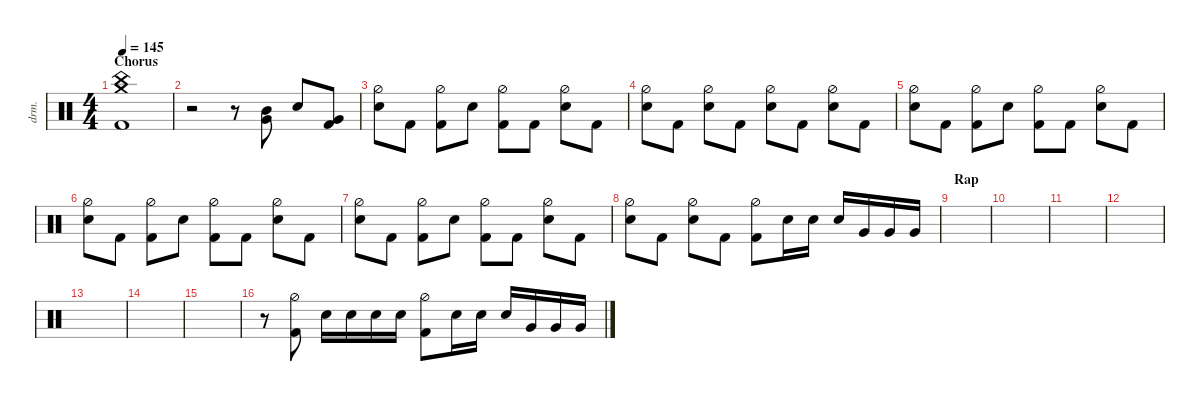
\defaultSystemsLayout 4
\hideDynamics
\bracketExtendMode nobrackets
\track ("Drums - Mario" "drm.") {instrument percussion}
\staff {score}
\articulation defaults
\ts (4 4)
\section ("" "Chorus")
\tempo 145
\clef neutral
\ks c
("Kick (hit) 2" "China (hit)" "Crash medium (hit)").1{dy ff beam Down} |
r.2{beam Down} r.8{beam Down} ("Mid Tom (hit)" "Very Low Tom (hit)").8{beam Up} "Snare (hit) 2".8{beam Up} ("Kick (hit) 2" "Very Low Tom (hit)").8{beam Up} |
("Snare (hit) 2" "Hi-Hat (half)").8{beam Down} "Kick (hit) 2".8{beam Down} ("Kick (hit) 2" "Hi-Hat (half)").8{beam Down} "Snare (hit) 2".8{beam Down} ("Kick (hit) 2" "Hi-Hat (half)").8{beam Down} "Kick (hit) 2".8{beam Down} ("Snare (hit) 2" "Hi-Hat (half)").8{beam Down} "Kick (hit) 2".8{beam Down} |
("Snare (hit) 2" "Hi-Hat (half)").8{beam Down} "Kick (hit) 2".8{beam Down} ("Snare (hit) 2" "Hi-Hat (half)").8{beam Down} "Kick (hit) 2".8{beam Down} ("Snare (hit) 2" "Hi-Hat (half)").8{beam Down} "Kick (hit) 2".8{beam Down} ("Snare (hit) 2" "Hi-Hat (half)").8{beam Down} "Kick (hit) 2".8{beam Down} |
("Snare (hit) 2" "Hi-Hat (half)").8{beam Down} "Kick (hit) 2".8{beam Down} ("Kick (hit) 2" "Hi-Hat (half)").8{beam Down} "Snare (hit) 2".8{beam Down} ("Kick (hit) 2" "Hi-Hat (half)").8{beam Down} "Kick (hit) 2".8{beam Down} ("Snare (hit) 2" "Hi-Hat (half)").8{beam Down} "Kick (hit) 2".8{beam Down} |
("Snare (hit) 2" "Hi-Hat (half)").8{beam Down} "Kick (hit) 2".8{beam Down} ("Kick (hit) 2" "Hi-Hat (half)").8{beam Down} "Snare (hit) 2".8{beam Down} ("Kick (hit) 2" "Hi-Hat (half)").8{beam Down} "Kick (hit) 2".8{beam Down} ("Snare (hit) 2" "Hi-Hat (half)").8{beam Down} "Kick (hit) 2".8{beam Down} |
("Snare (hit) 2" "Hi-Hat (half)").8{beam Down} "Kick (hit) 2".8{beam Down} ("Kick (hit) 2" "Hi-Hat (half)").8{beam Down} "Snare (hit) 2".8{beam Down} ("Kick (hit) 2" "Hi-Hat (half)").8{beam Down} "Kick (hit) 2".8{beam Down} ("Snare (hit) 2" "Hi-Hat (half)").8{beam Down} "Kick (hit) 2".8{beam Down} |
("Snare (hit) 2" "Hi-Hat (half)").8{beam Down} "Kick (hit) 2".8{beam Down} ("Snare (hit) 2" "Hi-Hat (half)").8{beam Down} "Kick (hit) 2".8{beam Down} ("Hi-Hat (half)" "Kick (hit) 2").8{beam Down} "Snare (hit) 2".16{beam Down} "Snare (hit) 2".16{beam Down} "Snare (hit) 2".16{beam Up} "Very Low Tom (hit)".16{beam Up} "Very Low Tom (hit)".16{beam Up} "Very Low Tom (hit)".16{beam Up} |
\section ("" "Rap")
|
|
|
|
|
|
|
r.8{beam Down} ("Kick (hit) 2" "Hi-Hat (half)").8{beam Down} "Snare (hit) 2".16{beam Down} "Snare (hit) 2".16{beam Down} "Snare (hit) 2".16{beam Down} "Snare (hit) 2".16{beam Down} ("Kick (hit) 2" "Hi-Hat (half)").8{beam Down} "Snare (hit) 2".16{beam Down} "Snare (hit) 2".16{beam Down} "Snare (hit) 2".16{beam Up} "Very Low Tom (hit)".16{beam Up} "Very Low Tom (hit)".16{beam Up} "Very Low Tom (hit)".16{beam Up}
